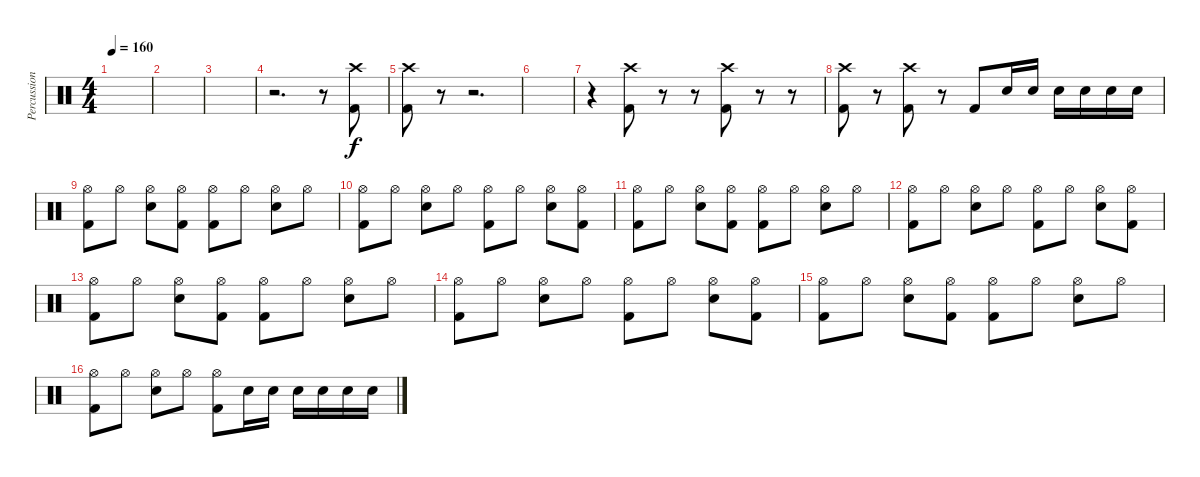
\track ("Percussioni" "Percussion") {instrument percussion}
\staff {score}
\articulation defaults
\ts (4 4)
\tempo 160
\clef neutral
\ks c
|
|
|
r.2{d} r.8 ("Crash high (hit)" "Kick (hit) 2").8 |
("Crash high (hit)" "Kick (hit) 2").8 r.8{volume 0} r.2{d} |
|
r.4{volume 16} ("Crash high (hit)" "Kick (hit) 2").8 r.8{volume 0} r.8 ("Crash high (hit)" "Kick (hit) 2").8{volume 16} r.8{volume 0} r.8 |
("Crash high (hit)" "Kick (hit) 2").8{volume 16} r.8{volume 0} ("Crash high (hit)" "Kick (hit) 2").8{volume 16} r.8{volume 0} "Kick (hit) 2".8{volume 16} "Electric Snare (hit)".16 "Electric Snare (hit)".16 "Electric Snare (hit)".16 "Electric Snare (hit)".16 "Electric Snare (hit)".16 "Electric Snare (hit)".16 |
("Hi-Hat (open)" "Kick (hit) 2").8 "Hi-Hat (open)".8 ("Hi-Hat (open)" "Electric Snare (hit)").8 ("Hi-Hat (open)" "Kick (hit) 2").8 ("Hi-Hat (open)" "Kick (hit) 2").8 "Hi-Hat (open)".8 ("Hi-Hat (open)" "Electric Snare (hit)").8 "Hi-Hat (open)".8 |
("Hi-Hat (open)" "Kick (hit) 2").8 "Hi-Hat (open)".8 ("Hi-Hat (open)" "Electric Snare (hit)").8 "Hi-Hat (open)".8 ("Hi-Hat (open)" "Kick (hit) 2").8 "Hi-Hat (open)".8 ("Hi-Hat (open)" "Electric Snare (hit)").8 ("Hi-Hat (open)" "Kick (hit) 2").8 |
("Hi-Hat (open)" "Kick (hit) 2").8 "Hi-Hat (open)".8 ("Hi-Hat (open)" "Electric Snare (hit)").8 ("Hi-Hat (open)" "Kick (hit) 2").8 ("Hi-Hat (open)" "Kick (hit) 2").8 "Hi-Hat (open)".8 ("Hi-Hat (open)" "Electric Snare (hit)").8 "Hi-Hat (open)".8 |
("Hi-Hat (open)" "Kick (hit) 2").8 "Hi-Hat (open)".8 ("Hi-Hat (open)" "Electric Snare (hit)").8 "Hi-Hat (open)".8 ("Hi-Hat (open)" "Kick (hit) 2").8 "Hi-Hat (open)".8 ("Hi-Hat (open)" "Electric Snare (hit)").8 ("Hi-Hat (open)" "Kick (hit) 2").8 |
("Hi-Hat (open)" "Kick (hit) 2").8 "Hi-Hat (open)".8 ("Hi-Hat (open)" "Electric Snare (hit)").8 ("Hi-Hat (open)" "Kick (hit) 2").8 ("Hi-Hat (open)" "Kick (hit) 2").8 "Hi-Hat (open)".8 ("Hi-Hat (open)" "Electric Snare (hit)").8 "Hi-Hat (open)".8 |
("Hi-Hat (open)" "Kick (hit) 2").8 "Hi-Hat (open)".8 ("Hi-Hat (open)" "Electric Snare (hit)").8 "Hi-Hat (open)".8 ("Hi-Hat (open)" "Kick (hit) 2").8 "Hi-Hat (open)".8 ("Hi-Hat (open)" "Electric Snare (hit)").8 ("Hi-Hat (open)" "Kick (hit) 2").8 |
("Hi-Hat (open)" "Kick (hit) 2").8 "Hi-Hat (open)".8 ("Hi-Hat (open)" "Electric Snare (hit)").8 ("Hi-Hat (open)" "Kick (hit) 2").8 ("Hi-Hat (open)" "Kick (hit) 2").8 "Hi-Hat (open)".8 ("Hi-Hat (open)" "Electric Snare (hit)").8 "Hi-Hat (open)".8 |
("Hi-Hat (open)" "Kick (hit) 2").8 "Hi-Hat (open)".8 ("Hi-Hat (open)" "Electric Snare (hit)").8 "Hi-Hat (open)".8 ("Hi-Hat (open)" "Kick (hit) 2").8 "Electric Snare (hit)".16 "Electric Snare (hit)".16 "Electric Snare (hit)".16 "Electric Snare (hit)".16 "Electric Snare (hit)".16 "Electric Snare (hit)".16
